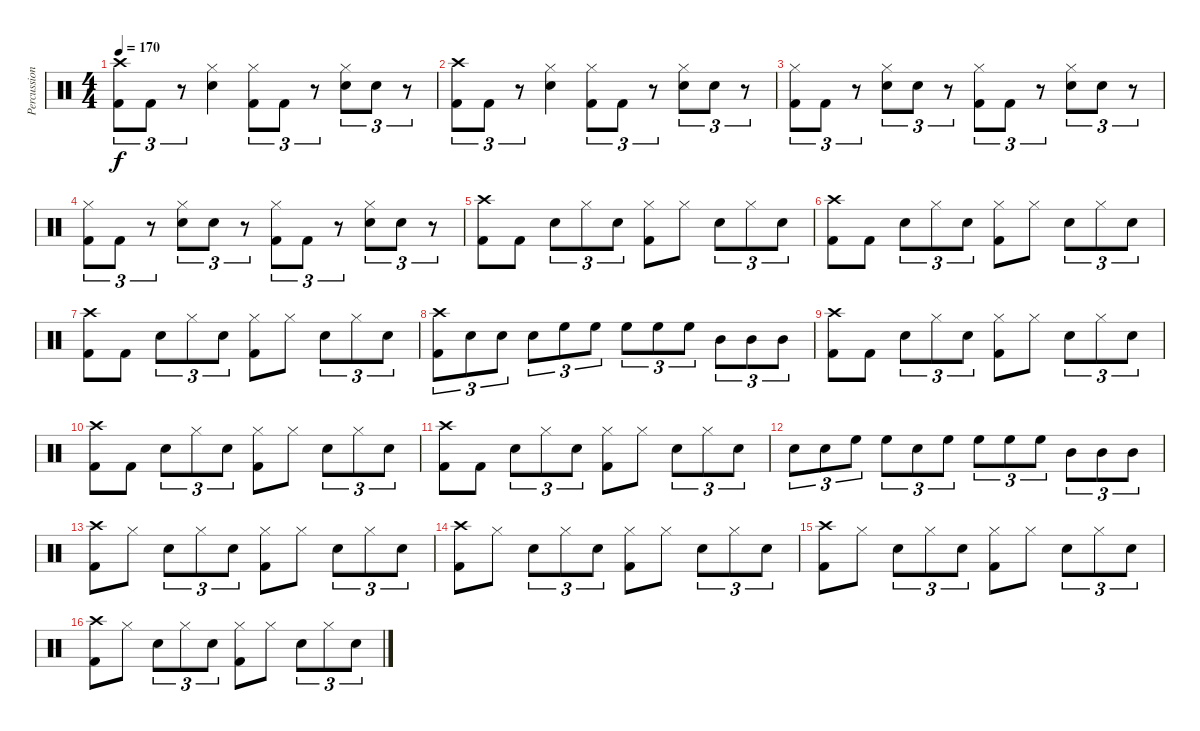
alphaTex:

\track ("Percussion" "Percussion") {instrument percussion}
\staff {score}
\articulation defaults
\ts (4 4)
\tempo 170
\clef neutral
\ks c
("Crash high (hit)" "Kick (hit) 2").8{tu (3 2) dy f} "Kick (hit) 2".8{tu (3 2)} r.8{tu (3 2)} ("Hi-Hat (closed)" "Snare (hit) 2").4 ("Hi-Hat (closed)" "Kick (hit) 2").8{tu (3 2)} "Kick (hit) 2".8{tu (3 2)} r.8{tu (3 2)} ("Hi-Hat (closed)" "Snare (hit) 2").8{tu (3 2)} "Snare (hit) 2".8{tu (3 2)} r.8{tu (3 2)} |
("Crash high (hit)" "Kick (hit) 2").8{tu (3 2)} "Kick (hit) 2".8{tu (3 2)} r.8{tu (3 2)} ("Hi-Hat (closed)" "Snare (hit) 2").4 ("Hi-Hat (closed)" "Kick (hit) 2").8{tu (3 2)} "Kick (hit) 2".8{tu (3 2)} r.8{tu (3 2)} ("Hi-Hat (closed)" "Snare (hit) 2").8{tu (3 2)} "Snare (hit) 2".8{tu (3 2)} r.8{tu (3 2)} |
("Hi-Hat (closed)" "Kick (hit) 2").8{tu (3 2)} "Kick (hit) 2".8{tu (3 2)} r.8{tu (3 2)} ("Hi-Hat (closed)" "Snare (hit) 2").8{tu (3 2)} "Snare (hit) 2".8{tu (3 2)} r.8{tu (3 2)} ("Hi-Hat (closed)" "Kick (hit) 2").8{tu (3 2)} "Kick (hit) 2".8{tu (3 2)} r.8{tu (3 2)} ("Hi-Hat (closed)" "Snare (hit) 2").8{tu (3 2)} "Snare (hit) 2".8{tu (3 2)} r.8{tu (3 2)} |
("Hi-Hat (closed)" "Kick (hit) 2").8{tu (3 2)} "Kick (hit) 2".8{tu (3 2)} r.8{tu (3 2)} ("Hi-Hat (closed)" "Snare (hit) 2").8{tu (3 2)} "Snare (hit) 2".8{tu (3 2)} r.8{tu (3 2)} ("Hi-Hat (closed)" "Kick (hit) 2").8{tu (3 2)} "Kick (hit) 2".8{tu (3 2)} r.8{tu (3 2)} ("Hi-Hat (closed)" "Snare (hit) 2").8{tu (3 2)} "Snare (hit) 2".8{tu (3 2)} r.8{tu (3 2)} |
("Crash high (hit)" "Kick (hit) 2").8 "Kick (hit) 2".8 "Snare (hit) 2".8{tu (3 2)} "Hi-Hat (closed)".8{tu (3 2)} "Snare (hit) 2".8{tu (3 2)} ("Hi-Hat (closed)" "Kick (hit) 2").8 "Hi-Hat (closed)".8 "Snare (hit) 2".8{tu (3 2)} "Hi-Hat (closed)".8{tu (3 2)} "Snare (hit) 2".8{tu (3 2)} |
("Crash high (hit)" "Kick (hit) 2").8 "Kick (hit) 2".8 "Snare (hit) 2".8{tu (3 2)} "Hi-Hat (closed)".8{tu (3 2)} "Snare (hit) 2".8{tu (3 2)} ("Hi-Hat (closed)" "Kick (hit) 2").8 "Hi-Hat (closed)".8 "Snare (hit) 2".8{tu (3 2)} "Hi-Hat (closed)".8{tu (3 2)} "Snare (hit) 2".8{tu (3 2)} |
("Crash high (hit)" "Kick (hit) 2").8 "Kick (hit) 2".8 "Snare (hit) 2".8{tu (3 2)} "Hi-Hat (closed)".8{tu (3 2)} "Snare (hit) 2".8{tu (3 2)} ("Hi-Hat (closed)" "Kick (hit) 2").8 "Hi-Hat (closed)".8 "Snare (hit) 2".8{tu (3 2)} "Hi-Hat (closed)".8{tu (3 2)} "Snare (hit) 2".8{tu (3 2)} |
("Crash high (hit)" "Kick (hit) 2").8{tu (3 2)} "Snare (hit) 2".8{tu (3 2)} "Snare (hit) 2".8{tu (3 2)} "Snare (hit) 2".8{tu (3 2)} "High Floor Tom (hit)".8{tu (3 2)} "High Floor Tom (hit)".8{tu (3 2)} "High Floor Tom (hit)".8{tu (3 2)} "High Floor Tom (hit)".8{tu (3 2)} "High Floor Tom (hit)".8{tu (3 2)} "Mid Tom (hit)".8{tu (3 2)} "Mid Tom (hit)".8{tu (3 2)} "Mid Tom (hit)".8{tu (3 2)} |
("Crash high (hit)" "Kick (hit) 2").8 "Kick (hit) 2".8 "Snare (hit) 2".8{tu (3 2)} "Hi-Hat (closed)".8{tu (3 2)} "Snare (hit) 2".8{tu (3 2)} ("Hi-Hat (closed)" "Kick (hit) 2").8 "Hi-Hat (closed)".8 "Snare (hit) 2".8{tu (3 2)} "Hi-Hat (closed)".8{tu (3 2)} "Snare (hit) 2".8{tu (3 2)} |
("Crash high (hit)" "Kick (hit) 2").8 "Kick (hit) 2".8 "Snare (hit) 2".8{tu (3 2)} "Hi-Hat (closed)".8{tu (3 2)} "Snare (hit) 2".8{tu (3 2)} ("Hi-Hat (closed)" "Kick (hit) 2").8 "Hi-Hat (closed)".8 "Snare (hit) 2".8{tu (3 2)} "Hi-Hat (closed)".8{tu (3 2)} "Snare (hit) 2".8{tu (3 2)} |
("Crash high (hit)" "Kick (hit) 2").8 "Kick (hit) 2".8 "Snare (hit) 2".8{tu (3 2)} "Hi-Hat (closed)".8{tu (3 2)} "Snare (hit) 2".8{tu (3 2)} ("Hi-Hat (closed)" "Kick (hit) 2").8 "Hi-Hat (closed)".8 "Snare (hit) 2".8{tu (3 2)} "Hi-Hat (closed)".8{tu (3 2)} "Snare (hit) 2".8{tu (3 2)} |
"Snare (hit) 2".8{tu (3 2)} "Snare (hit) 2".8{tu (3 2)} "High Floor Tom (hit)".8{tu (3 2)} "High Floor Tom (hit)".8{tu (3 2)} "Snare (hit) 2".8{tu (3 2)} "High Floor Tom (hit)".8{tu (3 2)} "High Floor Tom (hit)".8{tu (3 2)} "High Floor Tom (hit)".8{tu (3 2)} "High Floor Tom (hit)".8{tu (3 2)} "Mid Tom (hit)".8{tu (3 2)} "Mid Tom (hit)".8{tu (3 2)} "Mid Tom (hit)".8{tu (3 2)} |
("Crash high (hit)" "Kick (hit) 2").8 "Hi-Hat (closed)".8 "Snare (hit) 2".8{tu (3 2)} "Hi-Hat (closed)".8{tu (3 2)} "Snare (hit) 2".8{tu (3 2)} ("Hi-Hat (closed)" "Kick (hit) 2").8 "Hi-Hat (closed)".8 "Snare (hit) 2".8{tu (3 2)} "Hi-Hat (closed)".8{tu (3 2)} "Snare (hit) 2".8{tu (3 2)} |
("Crash high (hit)" "Kick (hit) 2").8 "Hi-Hat (closed)".8 "Snare (hit) 2".8{tu (3 2)} "Hi-Hat (closed)".8{tu (3 2)} "Snare (hit) 2".8{tu (3 2)} ("Hi-Hat (closed)" "Kick (hit) 2").8 "Hi-Hat (closed)".8 "Snare (hit) 2".8{tu (3 2)} "Hi-Hat (closed)".8{tu (3 2)} "Snare (hit) 2".8{tu (3 2)} |
("Crash high (hit)" "Kick (hit) 2").8 "Hi-Hat (closed)".8 "Snare (hit) 2".8{tu (3 2)} "Hi-Hat (closed)".8{tu (3 2)} "Snare (hit) 2".8{tu (3 2)} ("Hi-Hat (closed)" "Kick (hit) 2").8 "Hi-Hat (closed)".8 "Snare (hit) 2".8{tu (3 2)} "Hi-Hat (closed)".8{tu (3 2)} "Snare (hit) 2".8{tu (3 2)} |
("Crash high (hit)" "Kick (hit) 2").8 "Hi-Hat (closed)".8 "Snare (hit) 2".8{tu (3 2)} "Hi-Hat (closed)".8{tu (3 2)} "Snare (hit) 2".8{tu (3 2)} ("Hi-Hat (closed)" "Kick (hit) 2").8 "Hi-Hat (closed)".8 "Snare (hit) 2".8{tu (3 2)} "Hi-Hat (closed)".8{tu (3 2)} "Snare (hit) 2".8{tu (3 2)}
